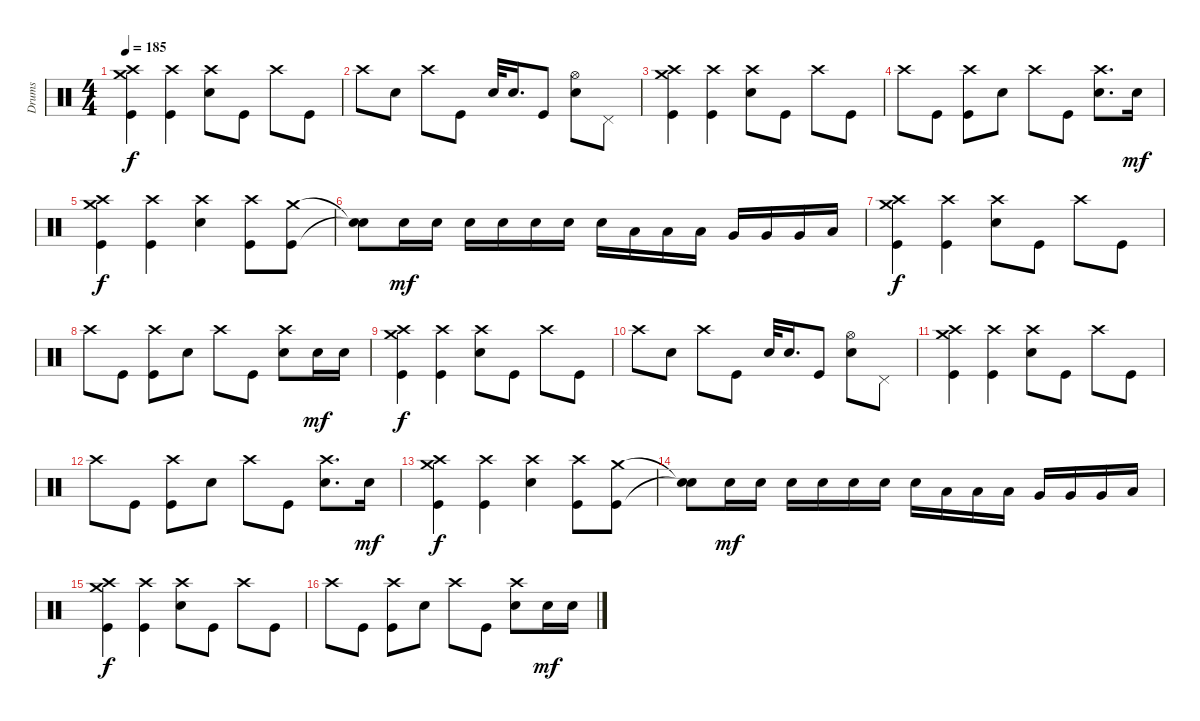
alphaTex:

\track ("Drums" "Drums") {instrument percussion}
\staff {score}
\articulation defaults
\ts (4 4)
\tempo 185
\clef neutral
\ks c
("Kick (hit)" "Crash high (hit)" "Crash medium (hit)").4{dy f} ("Kick (hit)" "Crash high (hit)").4 ("Electric Snare (hit)" "Crash high (hit)").8 "Kick (hit)".8 "Crash high (hit)".8 "Kick (hit)".8 |
"Crash high (hit)".8 "Electric Snare (hit)".8 "Crash high (hit)".8 "Kick (hit)".8 "Electric Snare (hit)".32 "Electric Snare (hit)".16{d} "Kick (hit)".8 ("Electric Snare (hit)" "Hi-Hat (open)").8 "Pedal Hi-Hat (hit)".8 |
("Kick (hit)" "Crash high (hit)" "Crash medium (hit)").4 ("Kick (hit)" "Crash high (hit)").4 ("Electric Snare (hit)" "Crash high (hit)").8 "Kick (hit)".8 "Crash high (hit)".8 "Kick (hit)".8 |
"Crash high (hit)".8 "Kick (hit)".8 ("Kick (hit)" "Crash high (hit)").8 "Electric Snare (hit)".8 "Crash high (hit)".8 "Kick (hit)".8 ("Electric Snare (hit)" "Crash high (hit)").8{d} "Electric Snare (hit)".16{dy mf} |
("Kick (hit)" "Crash high (hit)" "Crash medium (hit)").4{dy f} ("Kick (hit)" "Crash high (hit)").4 ("Electric Snare (hit)" "Crash high (hit)").4 ("Kick (hit)" "Crash high (hit)").8 ("Kick (hit)" "Crash medium (hit)").8 |
("Snare (hit)"{t} "Snare (hit)"{t}).8 "Electric Snare (hit)".16{dy mf} "Electric Snare (hit)".16 "Electric Snare (hit)".16 "Electric Snare (hit)".16 "Electric Snare (hit)".16 "Electric Snare (hit)".16 "Electric Snare (hit)".16 "Low Tom (hit)".16 "Low Tom (hit)".16 "Low Tom (hit)".16 "Very Low Tom (hit)".16 "Very Low Tom (hit)".16 "Very Low Tom (hit)".16 "Low Floor Tom (hit)".16 |
("Kick (hit)" "Crash high (hit)" "Crash medium (hit)").4{dy f} ("Kick (hit)" "Crash high (hit)").4 ("Electric Snare (hit)" "Crash high (hit)").8 "Kick (hit)".8 "Crash high (hit)".8 "Kick (hit)".8 |
"Crash high (hit)".8 "Kick (hit)".8 ("Kick (hit)" "Crash high (hit)").8 "Electric Snare (hit)".8 "Crash high (hit)".8 "Kick (hit)".8 ("Electric Snare (hit)" "Crash high (hit)").8 "Electric Snare (hit)".16{dy mf} "Electric Snare (hit)".16 |
("Kick (hit)" "Crash high (hit)" "Crash medium (hit)").4{dy f} ("Kick (hit)" "Crash high (hit)").4 ("Electric Snare (hit)" "Crash high (hit)").8 "Kick (hit)".8 "Crash high (hit)".8 "Kick (hit)".8 |
"Crash high (hit)".8 "Electric Snare (hit)".8 "Crash high (hit)".8 "Kick (hit)".8 "Electric Snare (hit)".32 "Electric Snare (hit)".16{d} "Kick (hit)".8 ("Electric Snare (hit)" "Hi-Hat (open)").8 "Pedal Hi-Hat (hit)".8 |
("Kick (hit)" "Crash high (hit)" "Crash medium (hit)").4 ("Kick (hit)" "Crash high (hit)").4 ("Electric Snare (hit)" "Crash high (hit)").8 "Kick (hit)".8 "Crash high (hit)".8 "Kick (hit)".8 |
"Crash high (hit)".8 "Kick (hit)".8 ("Kick (hit)" "Crash high (hit)").8 "Electric Snare (hit)".8 "Crash high (hit)".8 "Kick (hit)".8 ("Electric Snare (hit)" "Crash high (hit)").8{d} "Electric Snare (hit)".16{dy mf} |
("Kick (hit)" "Crash high (hit)" "Crash medium (hit)").4{dy f} ("Kick (hit)" "Crash high (hit)").4 ("Electric Snare (hit)" "Crash high (hit)").4 ("Kick (hit)" "Crash high (hit)").8 ("Kick (hit)" "Crash medium (hit)").8 |
("Snare (hit)"{t} "Snare (hit)"{t}).8 "Electric Snare (hit)".16{dy mf} "Electric Snare (hit)".16 "Electric Snare (hit)".16 "Electric Snare (hit)".16 "Electric Snare (hit)".16 "Electric Snare (hit)".16 "Electric Snare (hit)".16 "Low Tom (hit)".16 "Low Tom (hit)".16 "Low Tom (hit)".16 "Very Low Tom (hit)".16 "Very Low Tom (hit)".16 "Very Low Tom (hit)".16 "Low Floor Tom (hit)".16 |
("Kick (hit)" "Crash high (hit)" "Crash medium (hit)").4{dy f} ("Kick (hit)" "Crash high (hit)").4 ("Electric Snare (hit)" "Crash high (hit)").8 "Kick (hit)".8 "Crash high (hit)".8 "Kick (hit)".8 |
"Crash high (hit)".8 "Kick (hit)".8 ("Kick (hit)" "Crash high (hit)").8 "Electric Snare (hit)".8 "Crash high (hit)".8 "Kick (hit)".8 ("Electric Snare (hit)" "Crash high (hit)").8 "Electric Snare (hit)".16{dy mf} "Electric Snare (hit)".16
